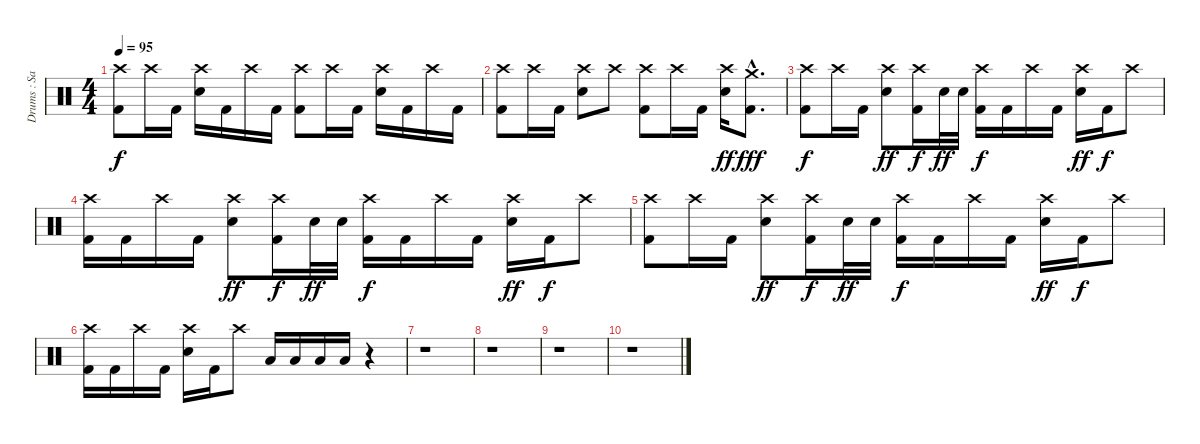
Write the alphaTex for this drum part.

\track ("Drums : Sammy Siegler" "Drums : Sa") {instrument percussion}
\staff {score}
\articulation defaults
\ts (4 4)
\tempo 95
\clef neutral
\ks c
("Crash high (hit)" "Kick (hit) 2").8{dy f} "Crash high (hit)".16 "Kick (hit) 2".16 ("Crash high (hit)" "Electric Snare (hit)").16 "Kick (hit) 2".16 "Crash high (hit)".16 "Kick (hit) 2".16 ("Crash high (hit)" "Kick (hit) 2").8 "Crash high (hit)".16 "Kick (hit) 2".16 ("Crash high (hit)" "Electric Snare (hit)").16 "Kick (hit) 2".16 "Crash high (hit)".16 "Kick (hit) 2".16 |
("Crash high (hit)" "Kick (hit) 2").8 "Crash high (hit)".16 "Kick (hit) 2".16 ("Crash high (hit)" "Electric Snare (hit)").8 "Crash high (hit)".8 ("Crash high (hit)" "Kick (hit) 2").8 "Crash high (hit)".16 "Kick (hit) 2".16 ("Crash high (hit)" "Electric Snare (hit)").16{dy ff} ("Crash medium (hit)"{hac} "Kick (hit) 2"{hac}).8{d dy fff} |
("Crash high (hit)" "Kick (hit) 2").8{dy f} "Crash high (hit)".16 "Kick (hit) 2".16 ("Crash high (hit)" "Electric Snare (hit)").8{dy ff} ("Crash high (hit)" "Kick (hit) 2").16{dy f} "Electric Snare (hit)".32{dy ff} "Electric Snare (hit)".32 ("Crash high (hit)" "Kick (hit) 2").16{dy f} "Kick (hit) 2".16 "Crash high (hit)".16 "Kick (hit) 2".16 ("Crash high (hit)" "Electric Snare (hit)").16{dy ff} "Kick (hit) 2".16{dy f} "Crash high (hit)".8 |
("Crash high (hit)" "Kick (hit) 2").16 "Kick (hit) 2".16 "Crash high (hit)".16 "Kick (hit) 2".16 ("Crash high (hit)" "Electric Snare (hit)").8{dy ff} ("Crash high (hit)" "Kick (hit) 2").16{dy f} "Electric Snare (hit)".32{dy ff} "Electric Snare (hit)".32 ("Crash high (hit)" "Kick (hit) 2").16{dy f} "Kick (hit) 2".16 "Crash high (hit)".16 "Kick (hit) 2".16 ("Crash high (hit)" "Electric Snare (hit)").16{dy ff} "Kick (hit) 2".16{dy f} "Crash high (hit)".8 |
("Crash high (hit)" "Kick (hit) 2").8 "Crash high (hit)".16 "Kick (hit) 2".16 ("Crash high (hit)" "Electric Snare (hit)").8{dy ff} ("Crash high (hit)" "Kick (hit) 2").16{dy f} "Electric Snare (hit)".32{dy ff} "Electric Snare (hit)".32 ("Crash high (hit)" "Kick (hit) 2").16{dy f} "Kick (hit) 2".16 "Crash high (hit)".16 "Kick (hit) 2".16 ("Crash high (hit)" "Electric Snare (hit)").16{dy ff} "Kick (hit) 2".16{dy f} "Crash high (hit)".8 |
("Crash high (hit)" "Kick (hit) 2").16 "Kick (hit) 2".16 "Crash high (hit)".16 "Kick (hit) 2".16 ("Crash high (hit)" "Electric Snare (hit)").16 "Kick (hit) 2".16 "Crash high (hit)".8 "Low Floor Tom (hit)".16 "Low Tom (hit)".16 "Low Floor Tom (hit)".16 "Low Floor Tom (hit)".16 r.4 |
r.1 |
r.1 |
r.1 |
r.1
